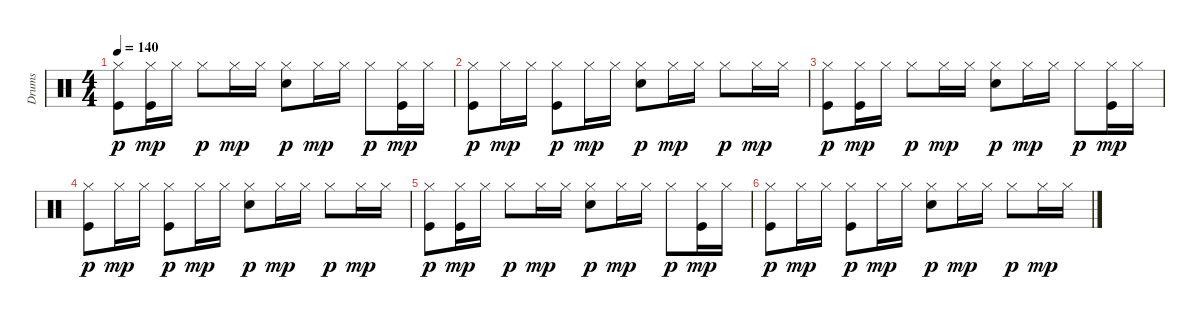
\track ("Drums" "Drums") {instrument percussion}
\staff {score}
\articulation defaults
\ts (4 4)
\tempo 140
\clef neutral
\ks c
("Kick (hit)" "Hi-Hat (closed)").8{dy p} ("Kick (hit)" "Hi-Hat (closed)").16{dy mp} "Hi-Hat (closed)".16 "Hi-Hat (closed)".8{dy p} "Hi-Hat (closed)".16{dy mp} "Hi-Hat (closed)".16 ("Snare (hit) 2" "Hi-Hat (closed)").8{dy p} "Hi-Hat (closed)".16{dy mp} "Hi-Hat (closed)".16 "Hi-Hat (closed)".8{dy p} ("Kick (hit)" "Hi-Hat (closed)").16{dy mp} "Hi-Hat (closed)".16 |
("Kick (hit)" "Hi-Hat (closed)").8{dy p} "Hi-Hat (closed)".16{dy mp} "Hi-Hat (closed)".16 ("Kick (hit)" "Hi-Hat (closed)").8{dy p} "Hi-Hat (closed)".16{dy mp} "Hi-Hat (closed)".16 ("Snare (hit) 2" "Hi-Hat (closed)").8{dy p} "Hi-Hat (closed)".16{dy mp} "Hi-Hat (closed)".16 "Hi-Hat (closed)".8{dy p} "Hi-Hat (closed)".16{dy mp} "Hi-Hat (closed)".16 |
("Kick (hit)" "Hi-Hat (closed)").8{dy p} ("Kick (hit)" "Hi-Hat (closed)").16{dy mp} "Hi-Hat (closed)".16 "Hi-Hat (closed)".8{dy p} "Hi-Hat (closed)".16{dy mp} "Hi-Hat (closed)".16 ("Snare (hit) 2" "Hi-Hat (closed)").8{dy p} "Hi-Hat (closed)".16{dy mp} "Hi-Hat (closed)".16 "Hi-Hat (closed)".8{dy p} ("Kick (hit)" "Hi-Hat (closed)").16{dy mp} "Hi-Hat (closed)".16 |
("Kick (hit)" "Hi-Hat (closed)").8{dy p} "Hi-Hat (closed)".16{dy mp} "Hi-Hat (closed)".16 ("Kick (hit)" "Hi-Hat (closed)").8{dy p} "Hi-Hat (closed)".16{dy mp} "Hi-Hat (closed)".16 ("Snare (hit) 2" "Hi-Hat (closed)").8{dy p} "Hi-Hat (closed)".16{dy mp} "Hi-Hat (closed)".16 "Hi-Hat (closed)".8{dy p} "Hi-Hat (closed)".16{dy mp} "Hi-Hat (closed)".16 |
("Kick (hit)" "Hi-Hat (closed)").8{dy p} ("Kick (hit)" "Hi-Hat (closed)").16{dy mp} "Hi-Hat (closed)".16 "Hi-Hat (closed)".8{dy p} "Hi-Hat (closed)".16{dy mp} "Hi-Hat (closed)".16 ("Snare (hit) 2" "Hi-Hat (closed)").8{dy p} "Hi-Hat (closed)".16{dy mp} "Hi-Hat (closed)".16 "Hi-Hat (closed)".8{dy p} ("Kick (hit)" "Hi-Hat (closed)").16{dy mp} "Hi-Hat (closed)".16 |
("Kick (hit)" "Hi-Hat (closed)").8{dy p} "Hi-Hat (closed)".16{dy mp} "Hi-Hat (closed)".16 ("Kick (hit)" "Hi-Hat (closed)").8{dy p} "Hi-Hat (closed)".16{dy mp} "Hi-Hat (closed)".16 ("Snare (hit) 2" "Hi-Hat (closed)").8{dy p} "Hi-Hat (closed)".16{dy mp} "Hi-Hat (closed)".16 "Hi-Hat (closed)".8{dy p} "Hi-Hat (closed)".16{dy mp} "Hi-Hat (closed)".16
